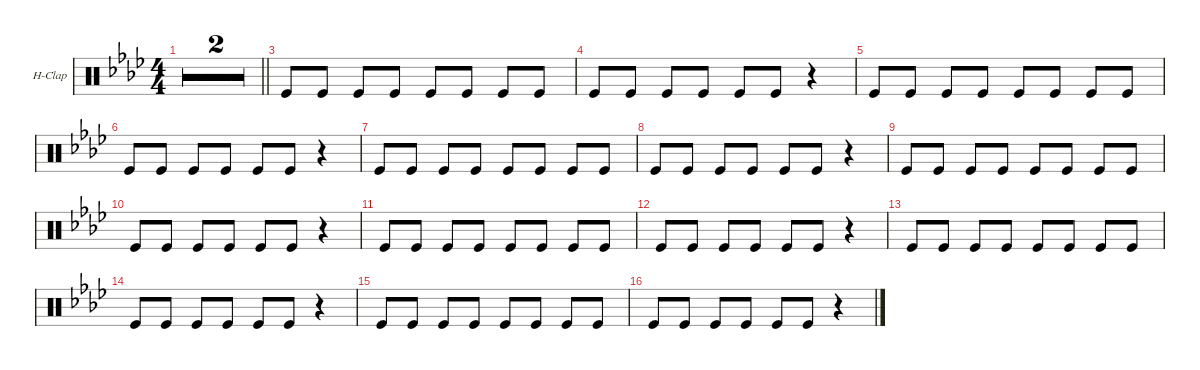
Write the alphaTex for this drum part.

\defaultSystemsLayout 4
\hideDynamics
\bracketExtendMode groupsimilarinstruments
\firstSystemTrackNameOrientation horizontal
\otherSystemsTrackNameOrientation horizontal
\track ("Hand Clap" "H-Clap") {multiBarRest instrument percussion}
\staff {score}
\articulation defaults
\ts (4 4)
\tempo 142
\clef neutral
\barLineRight lightlight
\ks ab
r.1{dy fff} |
\barLineRight lightlight
r.1 |
"Kick (hit)".8 "Kick (hit)".8 "Kick (hit)".8 "Kick (hit)".8 "Kick (hit)".8 "Kick (hit)".8 "Kick (hit)".8 "Kick (hit)".8 |
"Kick (hit)".8 "Kick (hit)".8 "Kick (hit)".8 "Kick (hit)".8 "Kick (hit)".8 "Kick (hit)".8 r.4 |
"Kick (hit)".8 "Kick (hit)".8 "Kick (hit)".8 "Kick (hit)".8 "Kick (hit)".8 "Kick (hit)".8 "Kick (hit)".8 "Kick (hit)".8 |
"Kick (hit)".8 "Kick (hit)".8 "Kick (hit)".8 "Kick (hit)".8 "Kick (hit)".8 "Kick (hit)".8 r.4 |
"Kick (hit)".8 "Kick (hit)".8 "Kick (hit)".8 "Kick (hit)".8 "Kick (hit)".8 "Kick (hit)".8 "Kick (hit)".8 "Kick (hit)".8 |
"Kick (hit)".8 "Kick (hit)".8 "Kick (hit)".8 "Kick (hit)".8 "Kick (hit)".8 "Kick (hit)".8 r.4 |
"Kick (hit)".8 "Kick (hit)".8 "Kick (hit)".8 "Kick (hit)".8 "Kick (hit)".8 "Kick (hit)".8 "Kick (hit)".8 "Kick (hit)".8 |
"Kick (hit)".8 "Kick (hit)".8 "Kick (hit)".8 "Kick (hit)".8 "Kick (hit)".8 "Kick (hit)".8 r.4 |
"Kick (hit)".8 "Kick (hit)".8 "Kick (hit)".8 "Kick (hit)".8 "Kick (hit)".8 "Kick (hit)".8 "Kick (hit)".8 "Kick (hit)".8 |
"Kick (hit)".8 "Kick (hit)".8 "Kick (hit)".8 "Kick (hit)".8 "Kick (hit)".8 "Kick (hit)".8 r.4 |
"Kick (hit)".8 "Kick (hit)".8 "Kick (hit)".8 "Kick (hit)".8 "Kick (hit)".8 "Kick (hit)".8 "Kick (hit)".8 "Kick (hit)".8 |
"Kick (hit)".8 "Kick (hit)".8 "Kick (hit)".8 "Kick (hit)".8 "Kick (hit)".8 "Kick (hit)".8 r.4 |
"Kick (hit)".8 "Kick (hit)".8 "Kick (hit)".8 "Kick (hit)".8 "Kick (hit)".8 "Kick (hit)".8 "Kick (hit)".8 "Kick (hit)".8 |
"Kick (hit)".8 "Kick (hit)".8 "Kick (hit)".8 "Kick (hit)".8 "Kick (hit)".8 "Kick (hit)".8 r.4
